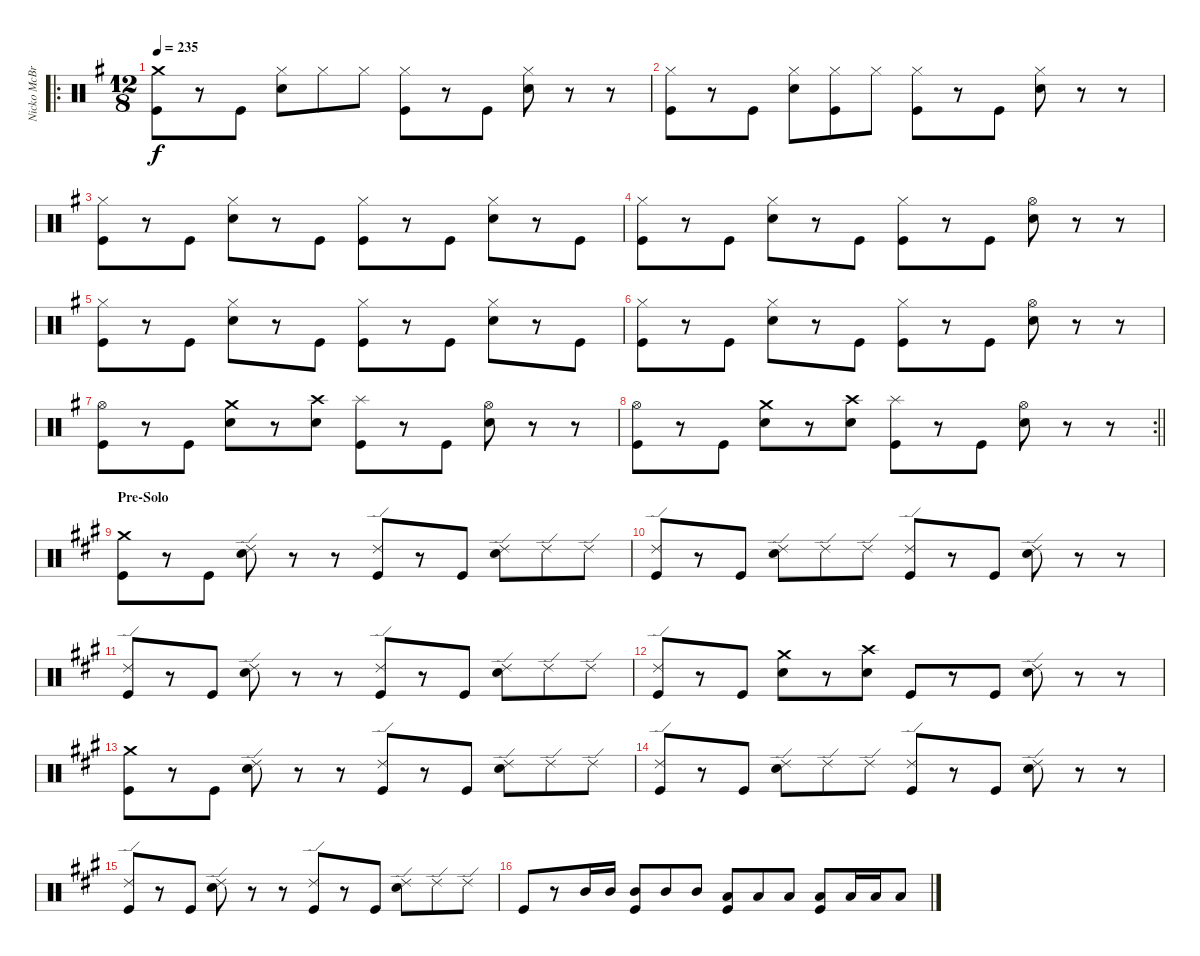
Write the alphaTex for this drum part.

\track ("Nicko McBrain (Drums)" "Nicko McBr") {instrument percussion}
\staff {score}
\articulation defaults
\ro
\ts (12 8)
\tempo 235
\clef neutral
\ks eminor
("Crash medium (hit)" "Kick (hit)").8{dy f} r.8 "Kick (hit)".8 ("Hi-Hat (closed)" "Snare (hit) 2").8 "Hi-Hat (closed)".8 "Hi-Hat (closed)".8 ("Hi-Hat (closed)" "Kick (hit)").8 r.8 "Kick (hit)".8 ("Hi-Hat (closed)" "Snare (hit) 2").8 r.8 r.8 |
("Hi-Hat (closed)" "Kick (hit)").8 r.8 "Kick (hit)".8 ("Hi-Hat (closed)" "Snare (hit) 2").8 ("Hi-Hat (closed)" "Kick (hit)").8 "Hi-Hat (closed)".8 ("Hi-Hat (closed)" "Kick (hit)").8 r.8 "Kick (hit)".8 ("Hi-Hat (closed)" "Snare (hit) 2").8 r.8 r.8 |
("Hi-Hat (closed)" "Kick (hit)").8 r.8 "Kick (hit)".8 ("Hi-Hat (closed)" "Snare (hit) 2").8 r.8 "Kick (hit)".8 ("Hi-Hat (closed)" "Kick (hit)").8 r.8 "Kick (hit)".8 ("Hi-Hat (closed)" "Snare (hit) 2").8 r.8 "Kick (hit)".8 |
("Hi-Hat (closed)" "Kick (hit)").8 r.8 "Kick (hit)".8 ("Hi-Hat (closed)" "Snare (hit) 2").8 r.8 "Kick (hit)".8 ("Hi-Hat (closed)" "Kick (hit)").8 r.8 "Kick (hit)".8 ("Hi-Hat (open)" "Snare (hit) 2").8 r.8 r.8 |
("Hi-Hat (closed)" "Kick (hit)").8 r.8 "Kick (hit)".8 ("Hi-Hat (closed)" "Snare (hit) 2").8 r.8 "Kick (hit)".8 ("Hi-Hat (closed)" "Kick (hit)").8 r.8 "Kick (hit)".8 ("Hi-Hat (closed)" "Snare (hit) 2").8 r.8 "Kick (hit)".8 |
("Hi-Hat (closed)" "Kick (hit)").8 r.8 "Kick (hit)".8 ("Hi-Hat (closed)" "Snare (hit) 2").8 r.8 "Kick (hit)".8 ("Hi-Hat (closed)" "Kick (hit)").8 r.8 "Kick (hit)".8 ("Hi-Hat (open)" "Snare (hit) 2").8 r.8 r.8 |
("Hi-Hat (open)" "Kick (hit)").8 r.8 "Kick (hit)".8 ("Crash medium (hit)" "Snare (hit) 2").8 r.8 ("Crash high (hit)" "Snare (hit) 2").8 ("Splash (hit)" "Kick (hit)").8 r.8 "Kick (hit)".8 ("Hi-Hat (open)" "Snare (hit) 2").8 r.8 r.8 |
\rc 2
\barLineRight lightlight
("Hi-Hat (open)" "Kick (hit)").8 r.8 "Kick (hit)".8 ("Crash medium (hit)" "Snare (hit) 2").8 r.8 ("Crash high (hit)" "Snare (hit) 2").8 ("Splash (hit)" "Kick (hit)").8 r.8 "Kick (hit)".8 ("Hi-Hat (open)" "Snare (hit) 2").8 r.8 r.8 |
\section ("" "Pre-Solo")
\ks f#minor
("Crash medium (hit)" "Kick (hit)").8 r.8 "Kick (hit)".8 ("Ride (edge) 2" "Snare (hit) 2").8 r.8 r.8 ("Ride (edge) 2" "Kick (hit)").8 r.8 "Kick (hit)".8 ("Ride (edge) 2" "Snare (hit) 2").8 "Ride (edge) 2".8 "Ride (edge) 2".8 |
("Ride (edge) 2" "Kick (hit)").8 r.8 "Kick (hit)".8 ("Ride (edge) 2" "Snare (hit) 2").8 "Ride (edge) 2".8 "Ride (edge) 2".8 ("Ride (edge) 2" "Kick (hit)").8 r.8 "Kick (hit)".8 ("Ride (edge) 2" "Snare (hit) 2").8 r.8 r.8 |
("Ride (edge) 2" "Kick (hit)").8 r.8 "Kick (hit)".8 ("Ride (edge) 2" "Snare (hit) 2").8 r.8 r.8 ("Ride (edge) 2" "Kick (hit)").8 r.8 "Kick (hit)".8 ("Ride (edge) 2" "Snare (hit) 2").8 "Ride (edge) 2".8 "Ride (edge) 2".8 |
("Ride (edge) 2" "Kick (hit)").8 r.8 "Kick (hit)".8 ("Crash medium (hit)" "Snare (hit) 2").8 r.8 ("Crash high (hit)" "Snare (hit) 2").8 "Kick (hit)".8 r.8 "Kick (hit)".8 ("Ride (edge) 2" "Snare (hit) 2").8 r.8 r.8 |
("Crash medium (hit)" "Kick (hit)").8 r.8 "Kick (hit)".8 ("Ride (edge) 2" "Snare (hit) 2").8 r.8 r.8 ("Ride (edge) 2" "Kick (hit)").8 r.8 "Kick (hit)".8 ("Ride (edge) 2" "Snare (hit) 2").8 "Ride (edge) 2".8 "Ride (edge) 2".8 |
("Ride (edge) 2" "Kick (hit)").8 r.8 "Kick (hit)".8 ("Ride (edge) 2" "Snare (hit) 2").8 "Ride (edge) 2".8 "Ride (edge) 2".8 ("Ride (edge) 2" "Kick (hit)").8 r.8 "Kick (hit)".8 ("Ride (edge) 2" "Snare (hit) 2").8 r.8 r.8 |
("Ride (edge) 2" "Kick (hit)").8 r.8 "Kick (hit)".8 ("Ride (edge) 2" "Snare (hit) 2").8 r.8 r.8 ("Ride (edge) 2" "Kick (hit)").8 r.8 "Kick (hit)".8 ("Ride (edge) 2" "Snare (hit) 2").8 "Ride (edge) 2".8 "Ride (edge) 2".8 |
"Kick (hit)".8 r.8 "Mid Tom (hit)".16 "Mid Tom (hit)".16 ("Mid Tom (hit)" "Kick (hit)").8 "Mid Tom (hit)".8 "Mid Tom (hit)".8 ("Low Tom (hit)" "Kick (hit)").8 "Low Tom (hit)".8 "Low Tom (hit)".8 ("Low Tom (hit)" "Kick (hit)").8 "Low Tom (hit)".16 "Low Tom (hit)".16 "Low Tom (hit)".8
